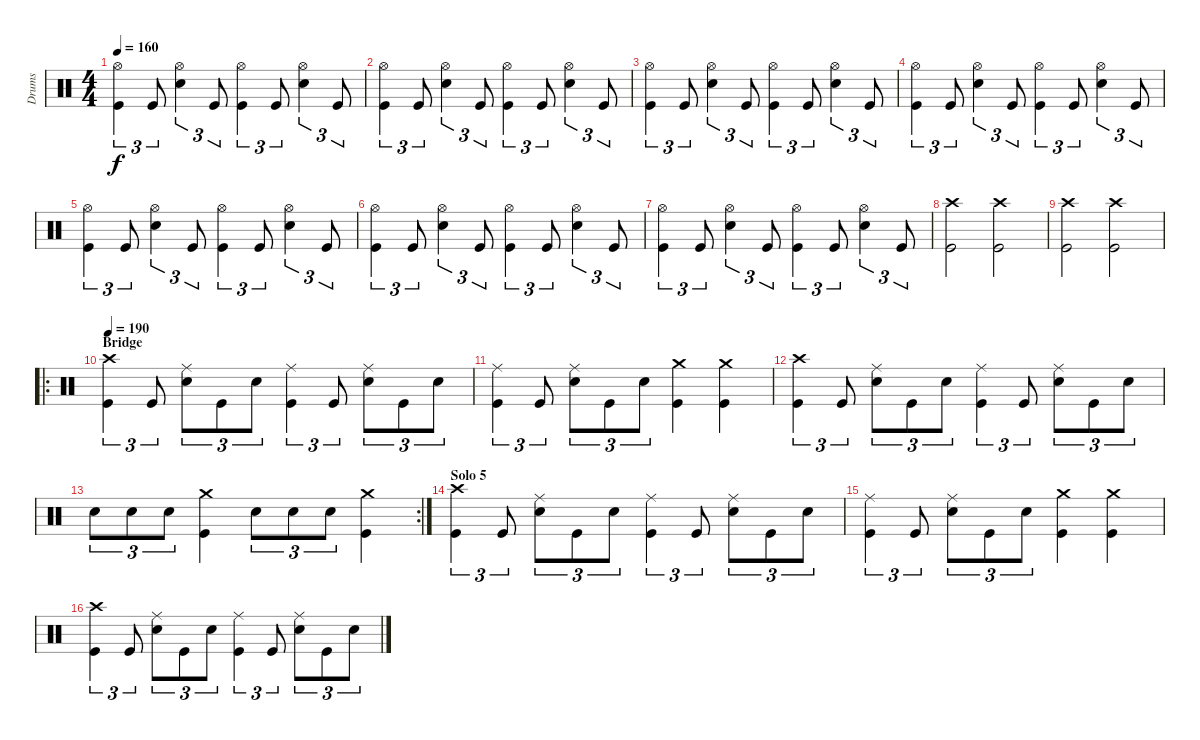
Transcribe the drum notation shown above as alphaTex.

\track ("Drums" "Drums") {instrument percussion}
\staff {score}
\articulation defaults
\ts (4 4)
\tempo 160
\clef neutral
\ks c
("Hi-Hat (open)" "Kick (hit)").4{tu (3 2) dy f} "Kick (hit)".8{tu (3 2)} ("Hi-Hat (open)" "Electric Snare (hit)").4{tu (3 2)} "Kick (hit)".8{tu (3 2)} ("Hi-Hat (open)" "Kick (hit)").4{tu (3 2)} "Kick (hit)".8{tu (3 2)} ("Hi-Hat (open)" "Electric Snare (hit)").4{tu (3 2)} "Kick (hit)".8{tu (3 2)} |
("Hi-Hat (open)" "Kick (hit)").4{tu (3 2)} "Kick (hit)".8{tu (3 2)} ("Hi-Hat (open)" "Electric Snare (hit)").4{tu (3 2)} "Kick (hit)".8{tu (3 2)} ("Hi-Hat (open)" "Kick (hit)").4{tu (3 2)} "Kick (hit)".8{tu (3 2)} ("Hi-Hat (open)" "Electric Snare (hit)").4{tu (3 2)} "Kick (hit)".8{tu (3 2)} |
("Hi-Hat (open)" "Kick (hit)").4{tu (3 2)} "Kick (hit)".8{tu (3 2)} ("Hi-Hat (open)" "Electric Snare (hit)").4{tu (3 2)} "Kick (hit)".8{tu (3 2)} ("Hi-Hat (open)" "Kick (hit)").4{tu (3 2)} "Kick (hit)".8{tu (3 2)} ("Hi-Hat (open)" "Electric Snare (hit)").4{tu (3 2)} "Kick (hit)".8{tu (3 2)} |
("Hi-Hat (open)" "Kick (hit)").4{tu (3 2)} "Kick (hit)".8{tu (3 2)} ("Hi-Hat (open)" "Electric Snare (hit)").4{tu (3 2)} "Kick (hit)".8{tu (3 2)} ("Hi-Hat (open)" "Kick (hit)").4{tu (3 2)} "Kick (hit)".8{tu (3 2)} ("Hi-Hat (open)" "Electric Snare (hit)").4{tu (3 2)} "Kick (hit)".8{tu (3 2)} |
("Hi-Hat (open)" "Kick (hit)").4{tu (3 2)} "Kick (hit)".8{tu (3 2)} ("Hi-Hat (open)" "Electric Snare (hit)").4{tu (3 2)} "Kick (hit)".8{tu (3 2)} ("Hi-Hat (open)" "Kick (hit)").4{tu (3 2)} "Kick (hit)".8{tu (3 2)} ("Hi-Hat (open)" "Electric Snare (hit)").4{tu (3 2)} "Kick (hit)".8{tu (3 2)} |
("Hi-Hat (open)" "Kick (hit)").4{tu (3 2)} "Kick (hit)".8{tu (3 2)} ("Hi-Hat (open)" "Electric Snare (hit)").4{tu (3 2)} "Kick (hit)".8{tu (3 2)} ("Hi-Hat (open)" "Kick (hit)").4{tu (3 2)} "Kick (hit)".8{tu (3 2)} ("Hi-Hat (open)" "Electric Snare (hit)").4{tu (3 2)} "Kick (hit)".8{tu (3 2)} |
("Hi-Hat (open)" "Kick (hit)").4{tu (3 2)} "Kick (hit)".8{tu (3 2)} ("Hi-Hat (open)" "Electric Snare (hit)").4{tu (3 2)} "Kick (hit)".8{tu (3 2)} ("Hi-Hat (open)" "Kick (hit)").4{tu (3 2)} "Kick (hit)".8{tu (3 2)} ("Hi-Hat (open)" "Electric Snare (hit)").4{tu (3 2)} "Kick (hit)".8{tu (3 2)} |
("Crash high (hit)" "Kick (hit)").2 ("Crash high (hit)" "Kick (hit)").2 |
("Crash high (hit)" "Kick (hit)").2 ("Crash high (hit)" "Kick (hit)").2 |
\ro
\section ("" "Bridge")
\tempo 190
("Crash high (hit)" "Kick (hit)").4{tu (3 2)} "Kick (hit)".8{tu (3 2)} ("Ride (middle)" "Snare (hit) 2").8{tu (3 2)} "Kick (hit)".8{tu (3 2)} "Snare (hit) 2".8{tu (3 2)} ("Ride (middle)" "Kick (hit)").4{tu (3 2)} "Kick (hit)".8{tu (3 2)} ("Ride (middle)" "Snare (hit) 2").8{tu (3 2)} "Kick (hit)".8{tu (3 2)} "Snare (hit) 2".8{tu (3 2)} |
("Ride (middle)" "Kick (hit)").4{tu (3 2)} "Kick (hit)".8{tu (3 2)} ("Ride (middle)" "Snare (hit) 2").8{tu (3 2)} "Kick (hit)".8{tu (3 2)} "Snare (hit) 2".8{tu (3 2)} ("Crash medium (hit)" "Kick (hit)").4 ("Crash medium (hit)" "Kick (hit)").4 |
("Crash high (hit)" "Kick (hit)").4{tu (3 2)} "Kick (hit)".8{tu (3 2)} ("Ride (middle)" "Snare (hit) 2").8{tu (3 2)} "Kick (hit)".8{tu (3 2)} "Snare (hit) 2".8{tu (3 2)} ("Ride (middle)" "Kick (hit)").4{tu (3 2)} "Kick (hit)".8{tu (3 2)} ("Ride (middle)" "Snare (hit) 2").8{tu (3 2)} "Kick (hit)".8{tu (3 2)} "Snare (hit) 2".8{tu (3 2)} |
\rc 2 "Snare (hit) 2".8{tu (3 2)} "Snare (hit) 2".8{tu (3 2)} "Snare (hit) 2".8{tu (3 2)}
("Crash medium (hit)" "Kick (hit)").4 "Snare (hit) 2".8{tu (3 2)} "Snare (hit) 2".8{tu (3 2)} "Snare (hit) 2".8{tu (3 2)} ("Crash medium (hit)" "Kick (hit)").4 |
\section ("" "Solo 5")
("Crash high (hit)" "Kick (hit)").4{tu (3 2)} "Kick (hit)".8{tu (3 2)} ("Ride (middle)" "Snare (hit) 2").8{tu (3 2)} "Kick (hit)".8{tu (3 2)} "Snare (hit) 2".8{tu (3 2)} ("Ride (middle)" "Kick (hit)").4{tu (3 2)} "Kick (hit)".8{tu (3 2)} ("Ride (middle)" "Snare (hit) 2").8{tu (3 2)} "Kick (hit)".8{tu (3 2)} "Snare (hit) 2".8{tu (3 2)} |
("Ride (middle)" "Kick (hit)").4{tu (3 2)} "Kick (hit)".8{tu (3 2)} ("Ride (middle)" "Snare (hit) 2").8{tu (3 2)} "Kick (hit)".8{tu (3 2)} "Snare (hit) 2".8{tu (3 2)} ("Crash medium (hit)" "Kick (hit)").4 ("Crash medium (hit)" "Kick (hit)").4 |
("Crash high (hit)" "Kick (hit)").4{tu (3 2)} "Kick (hit)".8{tu (3 2)} ("Ride (middle)" "Snare (hit) 2").8{tu (3 2)} "Kick (hit)".8{tu (3 2)} "Snare (hit) 2".8{tu (3 2)} ("Ride (middle)" "Kick (hit)").4{tu (3 2)} "Kick (hit)".8{tu (3 2)} ("Ride (middle)" "Snare (hit) 2").8{tu (3 2)} "Kick (hit)".8{tu (3 2)} "Snare (hit) 2".8{tu (3 2)}
